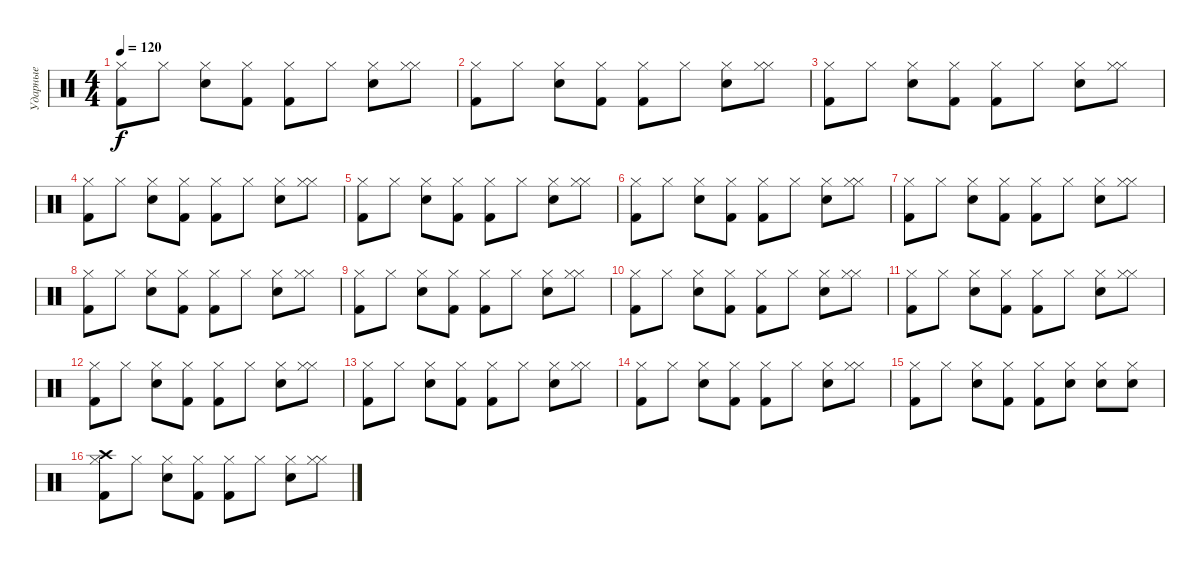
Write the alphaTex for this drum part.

\track ("Ударные" "Ударные") {instrument percussion}
\staff {score}
\articulation defaults
\ts (4 4)
\tempo 120
\clef neutral
\ks c
("Kick (hit) 2" "Hi-Hat (closed)").8{dy f} "Hi-Hat (closed)".8 ("Electric Snare (hit)" "Hi-Hat (closed)").8 ("Kick (hit) 2" "Hi-Hat (closed)").8 ("Kick (hit) 2" "Hi-Hat (closed)").8 "Hi-Hat (closed)".8 ("Electric Snare (hit)" "Hi-Hat (closed)").8 ("Hi-Hat (closed)" "Hi-Hat (closed)").8 |
("Kick (hit) 2" "Hi-Hat (closed)").8 "Hi-Hat (closed)".8 ("Electric Snare (hit)" "Hi-Hat (closed)").8 ("Kick (hit) 2" "Hi-Hat (closed)").8 ("Kick (hit) 2" "Hi-Hat (closed)").8 "Hi-Hat (closed)".8 ("Electric Snare (hit)" "Hi-Hat (closed)").8 ("Hi-Hat (closed)" "Hi-Hat (closed)").8 |
("Kick (hit) 2" "Hi-Hat (closed)").8 "Hi-Hat (closed)".8 ("Electric Snare (hit)" "Hi-Hat (closed)").8 ("Kick (hit) 2" "Hi-Hat (closed)").8 ("Kick (hit) 2" "Hi-Hat (closed)").8 "Hi-Hat (closed)".8 ("Electric Snare (hit)" "Hi-Hat (closed)").8 ("Hi-Hat (closed)" "Hi-Hat (closed)").8 |
("Kick (hit) 2" "Hi-Hat (closed)").8 "Hi-Hat (closed)".8 ("Electric Snare (hit)" "Hi-Hat (closed)").8 ("Kick (hit) 2" "Hi-Hat (closed)").8 ("Kick (hit) 2" "Hi-Hat (closed)").8 "Hi-Hat (closed)".8 ("Electric Snare (hit)" "Hi-Hat (closed)").8 ("Hi-Hat (closed)" "Hi-Hat (closed)").8 |
("Kick (hit) 2" "Hi-Hat (closed)").8 "Hi-Hat (closed)".8 ("Electric Snare (hit)" "Hi-Hat (closed)").8 ("Kick (hit) 2" "Hi-Hat (closed)").8 ("Kick (hit) 2" "Hi-Hat (closed)").8 "Hi-Hat (closed)".8 ("Electric Snare (hit)" "Hi-Hat (closed)").8 ("Hi-Hat (closed)" "Hi-Hat (closed)").8 |
("Kick (hit) 2" "Hi-Hat (closed)").8 "Hi-Hat (closed)".8 ("Electric Snare (hit)" "Hi-Hat (closed)").8 ("Kick (hit) 2" "Hi-Hat (closed)").8 ("Kick (hit) 2" "Hi-Hat (closed)").8 "Hi-Hat (closed)".8 ("Electric Snare (hit)" "Hi-Hat (closed)").8 ("Hi-Hat (closed)" "Hi-Hat (closed)").8 |
("Kick (hit) 2" "Hi-Hat (closed)").8 "Hi-Hat (closed)".8 ("Electric Snare (hit)" "Hi-Hat (closed)").8 ("Kick (hit) 2" "Hi-Hat (closed)").8 ("Kick (hit) 2" "Hi-Hat (closed)").8 "Hi-Hat (closed)".8 ("Electric Snare (hit)" "Hi-Hat (closed)").8 ("Hi-Hat (closed)" "Hi-Hat (closed)").8 |
("Kick (hit) 2" "Hi-Hat (closed)").8 "Hi-Hat (closed)".8 ("Electric Snare (hit)" "Hi-Hat (closed)").8 ("Kick (hit) 2" "Hi-Hat (closed)").8 ("Kick (hit) 2" "Hi-Hat (closed)").8 "Hi-Hat (closed)".8 ("Electric Snare (hit)" "Hi-Hat (closed)").8 ("Hi-Hat (closed)" "Hi-Hat (closed)").8 |
("Kick (hit) 2" "Hi-Hat (closed)").8 "Hi-Hat (closed)".8 ("Electric Snare (hit)" "Hi-Hat (closed)").8 ("Kick (hit) 2" "Hi-Hat (closed)").8 ("Kick (hit) 2" "Hi-Hat (closed)").8 "Hi-Hat (closed)".8 ("Electric Snare (hit)" "Hi-Hat (closed)").8 ("Hi-Hat (closed)" "Hi-Hat (closed)").8 |
("Kick (hit) 2" "Hi-Hat (closed)").8 "Hi-Hat (closed)".8 ("Electric Snare (hit)" "Hi-Hat (closed)").8 ("Kick (hit) 2" "Hi-Hat (closed)").8 ("Kick (hit) 2" "Hi-Hat (closed)").8 "Hi-Hat (closed)".8 ("Electric Snare (hit)" "Hi-Hat (closed)").8 ("Hi-Hat (closed)" "Hi-Hat (closed)").8 |
("Kick (hit) 2" "Hi-Hat (closed)").8 "Hi-Hat (closed)".8 ("Electric Snare (hit)" "Hi-Hat (closed)").8 ("Kick (hit) 2" "Hi-Hat (closed)").8 ("Kick (hit) 2" "Hi-Hat (closed)").8 "Hi-Hat (closed)".8 ("Electric Snare (hit)" "Hi-Hat (closed)").8 ("Hi-Hat (closed)" "Hi-Hat (closed)").8 |
("Kick (hit) 2" "Hi-Hat (closed)").8 "Hi-Hat (closed)".8 ("Electric Snare (hit)" "Hi-Hat (closed)").8 ("Kick (hit) 2" "Hi-Hat (closed)").8 ("Kick (hit) 2" "Hi-Hat (closed)").8 "Hi-Hat (closed)".8 ("Electric Snare (hit)" "Hi-Hat (closed)").8 ("Hi-Hat (closed)" "Hi-Hat (closed)").8 |
("Kick (hit) 2" "Hi-Hat (closed)").8 "Hi-Hat (closed)".8 ("Electric Snare (hit)" "Hi-Hat (closed)").8 ("Kick (hit) 2" "Hi-Hat (closed)").8 ("Kick (hit) 2" "Hi-Hat (closed)").8 "Hi-Hat (closed)".8 ("Electric Snare (hit)" "Hi-Hat (closed)").8 ("Hi-Hat (closed)" "Hi-Hat (closed)").8 |
("Kick (hit) 2" "Hi-Hat (closed)").8 "Hi-Hat (closed)".8 ("Electric Snare (hit)" "Hi-Hat (closed)").8 ("Kick (hit) 2" "Hi-Hat (closed)").8 ("Kick (hit) 2" "Hi-Hat (closed)").8 "Hi-Hat (closed)".8 ("Electric Snare (hit)" "Hi-Hat (closed)").8 ("Hi-Hat (closed)" "Hi-Hat (closed)").8 |
("Kick (hit) 2" "Hi-Hat (closed)").8 "Hi-Hat (closed)".8 ("Electric Snare (hit)" "Hi-Hat (closed)").8 ("Kick (hit) 2" "Hi-Hat (closed)").8 ("Kick (hit) 2" "Hi-Hat (closed)").8 ("Electric Snare (hit)" "Hi-Hat (closed)").8 ("Electric Snare (hit)" "Hi-Hat (closed)").8 ("Electric Snare (hit)" "Hi-Hat (closed)").8 |
("Kick (hit) 2" "Hi-Hat (closed)" "Crash high (hit)").8 "Hi-Hat (closed)".8 ("Electric Snare (hit)" "Hi-Hat (closed)").8 ("Kick (hit) 2" "Hi-Hat (closed)").8 ("Kick (hit) 2" "Hi-Hat (closed)").8 "Hi-Hat (closed)".8 ("Electric Snare (hit)" "Hi-Hat (closed)").8 ("Hi-Hat (closed)" "Hi-Hat (closed)").8
